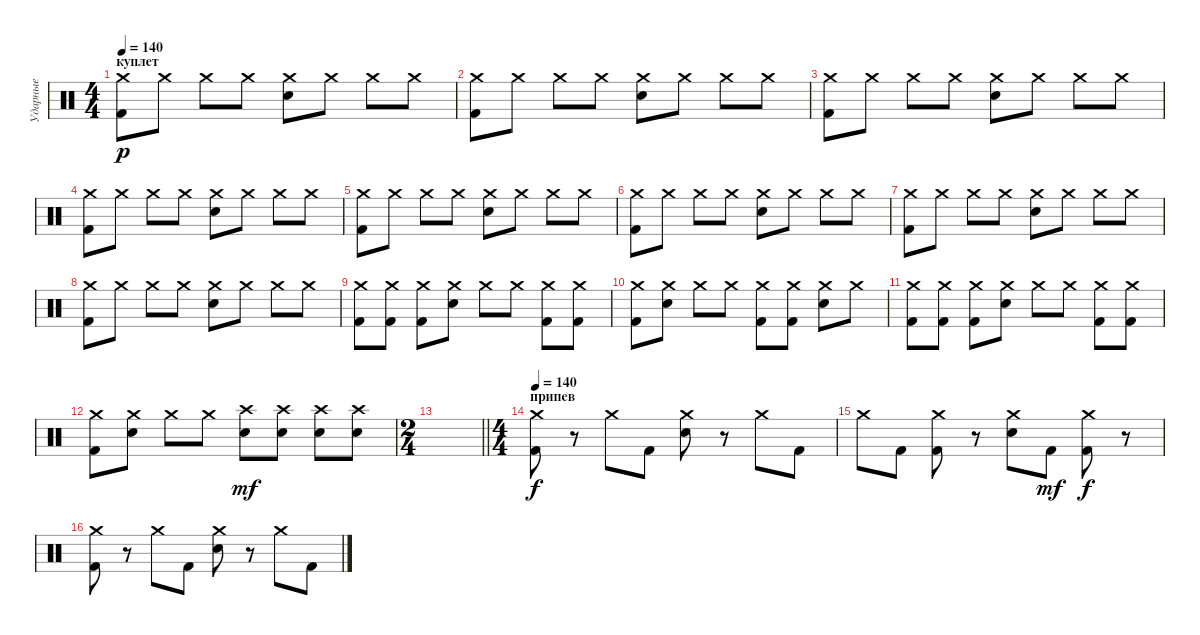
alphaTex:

\track ("Ударные" "Ударные") {instrument percussion}
\staff {score}
\articulation defaults
\ts (4 4)
\section ("" "куплет")
\tempo 140
\clef neutral
\ks c
("Crash medium (hit)" "Kick (hit) 2").8{dy p} "Crash medium (hit)".8 "Crash medium (hit)".8 "Crash medium (hit)".8 ("Crash medium (hit)" "Snare (hit) 2").8 "Crash medium (hit)".8 "Crash medium (hit)".8 "Crash medium (hit)".8 |
("Crash medium (hit)" "Kick (hit) 2").8 "Crash medium (hit)".8 "Crash medium (hit)".8 "Crash medium (hit)".8 ("Crash medium (hit)" "Snare (hit) 2").8 "Crash medium (hit)".8 "Crash medium (hit)".8 "Crash medium (hit)".8 |
("Crash medium (hit)" "Kick (hit) 2").8 "Crash medium (hit)".8 "Crash medium (hit)".8 "Crash medium (hit)".8 ("Crash medium (hit)" "Snare (hit) 2").8 "Crash medium (hit)".8 "Crash medium (hit)".8 "Crash medium (hit)".8 |
("Crash medium (hit)" "Kick (hit) 2").8 "Crash medium (hit)".8 "Crash medium (hit)".8 "Crash medium (hit)".8 ("Crash medium (hit)" "Snare (hit) 2").8 "Crash medium (hit)".8 "Crash medium (hit)".8 "Crash medium (hit)".8 |
("Crash medium (hit)" "Kick (hit) 2").8 "Crash medium (hit)".8 "Crash medium (hit)".8 "Crash medium (hit)".8 ("Crash medium (hit)" "Snare (hit) 2").8 "Crash medium (hit)".8 "Crash medium (hit)".8 "Crash medium (hit)".8 |
("Crash medium (hit)" "Kick (hit) 2").8 "Crash medium (hit)".8 "Crash medium (hit)".8 "Crash medium (hit)".8 ("Crash medium (hit)" "Snare (hit) 2").8 "Crash medium (hit)".8 "Crash medium (hit)".8 "Crash medium (hit)".8 |
("Crash medium (hit)" "Kick (hit) 2").8 "Crash medium (hit)".8 "Crash medium (hit)".8 "Crash medium (hit)".8 ("Crash medium (hit)" "Snare (hit) 2").8 "Crash medium (hit)".8 "Crash medium (hit)".8 "Crash medium (hit)".8 |
("Crash medium (hit)" "Kick (hit) 2").8 "Crash medium (hit)".8 "Crash medium (hit)".8 "Crash medium (hit)".8 ("Crash medium (hit)" "Snare (hit) 2").8 "Crash medium (hit)".8 "Crash medium (hit)".8 "Crash medium (hit)".8 |
("Crash medium (hit)" "Kick (hit) 2").8 ("Crash medium (hit)" "Kick (hit) 2").8 ("Crash medium (hit)" "Kick (hit) 2").8 ("Crash medium (hit)" "Snare (hit) 2").8 "Crash medium (hit)".8 "Crash medium (hit)".8 ("Crash medium (hit)" "Kick (hit) 2").8 ("Crash medium (hit)" "Kick (hit) 2").8 |
("Crash medium (hit)" "Kick (hit) 2").8 ("Crash medium (hit)" "Snare (hit) 2").8 "Crash medium (hit)".8 "Crash medium (hit)".8 ("Crash medium (hit)" "Kick (hit) 2").8 ("Crash medium (hit)" "Kick (hit) 2").8 ("Crash medium (hit)" "Snare (hit) 2").8 "Crash medium (hit)".8 |
("Crash medium (hit)" "Kick (hit) 2").8 ("Crash medium (hit)" "Kick (hit) 2").8 ("Crash medium (hit)" "Kick (hit) 2").8 ("Crash medium (hit)" "Snare (hit) 2").8 "Crash medium (hit)".8 "Crash medium (hit)".8 ("Crash medium (hit)" "Kick (hit) 2").8 ("Crash medium (hit)" "Kick (hit) 2").8 |
("Crash medium (hit)" "Kick (hit) 2").8 ("Crash medium (hit)" "Snare (hit) 2").8 "Crash medium (hit)".8 "Crash medium (hit)".8 ("Crash high (hit)" "Snare (hit) 2").8{dy mf} ("Crash high (hit)" "Snare (hit) 2").8 ("Crash high (hit)" "Snare (hit) 2").8 ("Crash high (hit)" "Snare (hit) 2").8 |
\ts (2 4)
\barLineRight lightlight
|
\ts (4 4)
\section ("" "припев")
\tempo 140
("Crash medium (hit)" "Kick (hit) 2").8{dy f} r.8 "Crash medium (hit)".8 "Kick (hit) 2".8 ("Crash medium (hit)" "Snare (hit) 2").8 r.8 "Crash medium (hit)".8 "Kick (hit) 2".8 |
"Crash medium (hit)".8 "Kick (hit) 2".8 ("Crash medium (hit)" "Kick (hit) 2").8 r.8 ("Crash medium (hit)" "Snare (hit) 2").8 "Kick (hit) 2".8{dy mf} ("Crash medium (hit)" "Kick (hit) 2").8{dy f} r.8 |
("Crash medium (hit)" "Kick (hit) 2").8 r.8 "Crash medium (hit)".8 "Kick (hit) 2".8 ("Crash medium (hit)" "Snare (hit) 2").8 r.8 "Crash medium (hit)".8 "Kick (hit) 2".8
